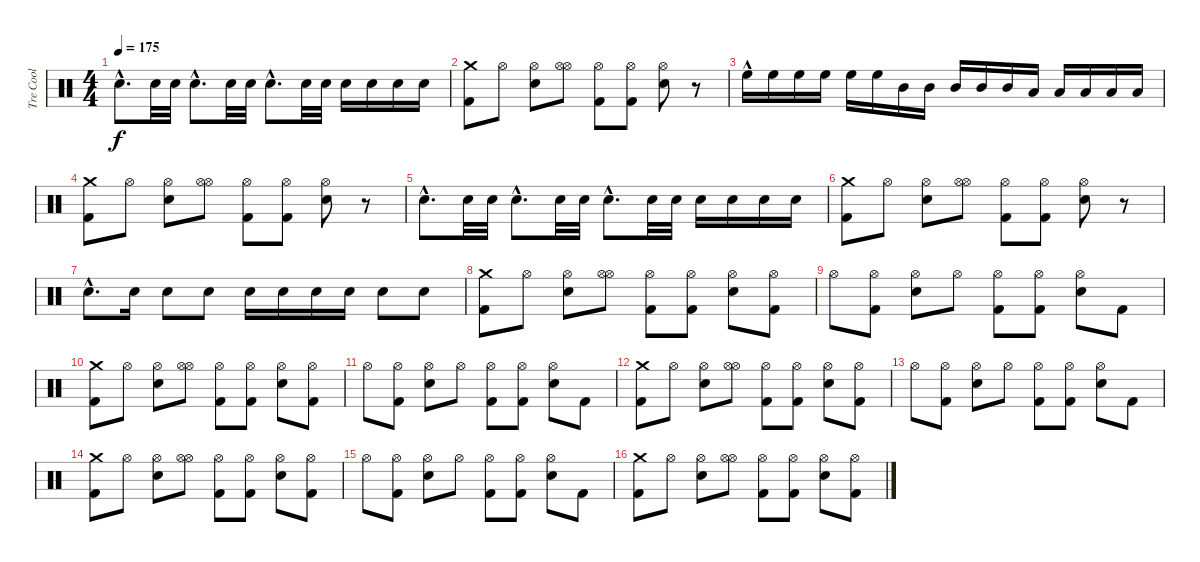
\track ("Tre Cool" "Tre Cool") {instrument percussion}
\staff {score}
\articulation defaults
\ts (4 4)
\tempo 175
\clef neutral
\ks c "Snare (hit) 2"{hac}.8{d dy f} "Snare (hit) 2".32 "Snare (hit) 2".32 "Snare (hit) 2"{hac}.8{d} "Snare (hit) 2".32 "Snare (hit) 2".32 "Snare (hit) 2"{hac}.8{d} "Snare (hit) 2".32 "Snare (hit) 2".32 "Snare (hit) 2".16 "Snare (hit) 2".16 "Snare (hit) 2".16 "Snare (hit) 2".16
|
("Kick (hit) 2" "Crash medium (hit)").8 "Hi-Hat (open)".8 ("Snare (hit) 2" "Hi-Hat (open)").8 ("Hi-Hat (open)" "Hi-Hat (open)").8 ("Kick (hit) 2" "Hi-Hat (open)").8 ("Kick (hit) 2" "Hi-Hat (open)").8 ("Snare (hit) 2" "Hi-Hat (open)").8 r.8 |
"High Floor Tom (hit)"{hac}.16 "High Floor Tom (hit)".16 "High Floor Tom (hit)".16 "High Floor Tom (hit)".16 "High Floor Tom (hit)".16 "High Floor Tom (hit)".16 "Mid Tom (hit)".16 "Mid Tom (hit)".16 "Mid Tom (hit)".16 "Mid Tom (hit)".16 "Mid Tom (hit)".16 "Low Tom (hit)".16 "Low Tom (hit)".16 "Low Tom (hit)".16 "Low Tom (hit)".16 "Low Tom (hit)".16 |
("Kick (hit) 2" "Crash medium (hit)").8 "Hi-Hat (open)".8 ("Snare (hit) 2" "Hi-Hat (open)").8 ("Hi-Hat (open)" "Hi-Hat (open)").8 ("Kick (hit) 2" "Hi-Hat (open)").8 ("Kick (hit) 2" "Hi-Hat (open)").8 ("Snare (hit) 2" "Hi-Hat (open)").8 r.8 |
"Snare (hit) 2"{hac}.8{d} "Snare (hit) 2".32 "Snare (hit) 2".32 "Snare (hit) 2"{hac}.8{d} "Snare (hit) 2".32 "Snare (hit) 2".32 "Snare (hit) 2"{hac}.8{d} "Snare (hit) 2".32 "Snare (hit) 2".32 "Snare (hit) 2".16 "Snare (hit) 2".16 "Snare (hit) 2".16 "Snare (hit) 2".16 |
("Kick (hit) 2" "Crash medium (hit)").8 "Hi-Hat (open)".8 ("Snare (hit) 2" "Hi-Hat (open)").8 ("Hi-Hat (open)" "Hi-Hat (open)").8 ("Kick (hit) 2" "Hi-Hat (open)").8 ("Kick (hit) 2" "Hi-Hat (open)").8 ("Snare (hit) 2" "Hi-Hat (open)").8 r.8 |
"Snare (hit) 2"{hac}.8{d} "Snare (hit) 2".16 "Snare (hit) 2".8 "Snare (hit) 2".8 "Snare (hit) 2".16 "Snare (hit) 2".16 "Snare (hit) 2".16 "Snare (hit) 2".16 "Snare (hit) 2".8 "Snare (hit) 2".8 |
("Kick (hit) 2" "Crash medium (hit)").8 "Hi-Hat (open)".8 ("Snare (hit) 2" "Hi-Hat (open)").8 ("Hi-Hat (open)" "Hi-Hat (open)").8 ("Kick (hit) 2" "Hi-Hat (open)").8 ("Kick (hit) 2" "Hi-Hat (open)").8 ("Snare (hit) 2" "Hi-Hat (open)").8 ("Kick (hit) 2" "Hi-Hat (open)").8 |
"Hi-Hat (open)".8 ("Kick (hit) 2" "Hi-Hat (open)").8 ("Snare (hit) 2" "Hi-Hat (open)").8 "Hi-Hat (open)".8 ("Kick (hit) 2" "Hi-Hat (open)").8 ("Kick (hit) 2" "Hi-Hat (open)").8 ("Snare (hit) 2" "Hi-Hat (open)").8 "Kick (hit) 2".8 |
("Kick (hit) 2" "Crash medium (hit)").8 "Hi-Hat (open)".8 ("Snare (hit) 2" "Hi-Hat (open)").8 ("Hi-Hat (open)" "Hi-Hat (open)").8 ("Kick (hit) 2" "Hi-Hat (open)").8 ("Kick (hit) 2" "Hi-Hat (open)").8 ("Snare (hit) 2" "Hi-Hat (open)").8 ("Kick (hit) 2" "Hi-Hat (open)").8 |
"Hi-Hat (open)".8 ("Kick (hit) 2" "Hi-Hat (open)").8 ("Snare (hit) 2" "Hi-Hat (open)").8 "Hi-Hat (open)".8 ("Kick (hit) 2" "Hi-Hat (open)").8 ("Kick (hit) 2" "Hi-Hat (open)").8 ("Snare (hit) 2" "Hi-Hat (open)").8 "Kick (hit) 2".8 |
("Kick (hit) 2" "Crash medium (hit)").8 "Hi-Hat (open)".8 ("Snare (hit) 2" "Hi-Hat (open)").8 ("Hi-Hat (open)" "Hi-Hat (open)").8 ("Kick (hit) 2" "Hi-Hat (open)").8 ("Kick (hit) 2" "Hi-Hat (open)").8 ("Snare (hit) 2" "Hi-Hat (open)").8 ("Kick (hit) 2" "Hi-Hat (open)").8 |
"Hi-Hat (open)".8 ("Kick (hit) 2" "Hi-Hat (open)").8 ("Snare (hit) 2" "Hi-Hat (open)").8 "Hi-Hat (open)".8 ("Kick (hit) 2" "Hi-Hat (open)").8 ("Kick (hit) 2" "Hi-Hat (open)").8 ("Snare (hit) 2" "Hi-Hat (open)").8 "Kick (hit) 2".8 |
("Kick (hit) 2" "Crash medium (hit)").8 "Hi-Hat (open)".8 ("Snare (hit) 2" "Hi-Hat (open)").8 ("Hi-Hat (open)" "Hi-Hat (open)").8 ("Kick (hit) 2" "Hi-Hat (open)").8 ("Kick (hit) 2" "Hi-Hat (open)").8 ("Snare (hit) 2" "Hi-Hat (open)").8 ("Kick (hit) 2" "Hi-Hat (open)").8 |
"Hi-Hat (open)".8 ("Kick (hit) 2" "Hi-Hat (open)").8 ("Snare (hit) 2" "Hi-Hat (open)").8 "Hi-Hat (open)".8 ("Kick (hit) 2" "Hi-Hat (open)").8 ("Kick (hit) 2" "Hi-Hat (open)").8 ("Snare (hit) 2" "Hi-Hat (open)").8 "Kick (hit) 2".8 |
("Kick (hit) 2" "Crash medium (hit)").8 "Hi-Hat (open)".8 ("Snare (hit) 2" "Hi-Hat (open)").8 ("Hi-Hat (open)" "Hi-Hat (open)").8 ("Kick (hit) 2" "Hi-Hat (open)").8 ("Kick (hit) 2" "Hi-Hat (open)").8 ("Snare (hit) 2" "Hi-Hat (open)").8 ("Kick (hit) 2" "Hi-Hat (open)").8
